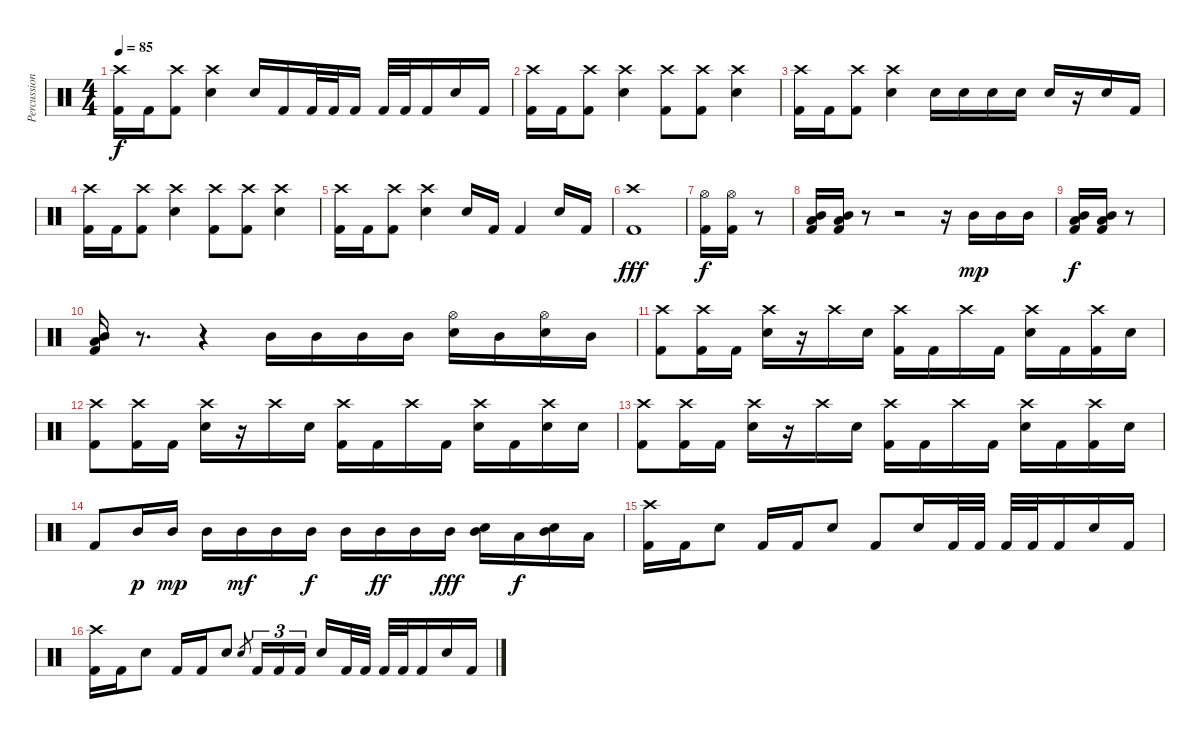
\track ("Percussion" "Percussion") {instrument percussion}
\staff {score}
\articulation defaults
\ts (4 4)
\tempo 85
\clef neutral
\ks c
("Crash high (hit)" "Kick (hit) 2").16{dy f} "Kick (hit) 2".16 ("Crash high (hit)" "Kick (hit) 2").8 ("Crash high (hit)" "Electric Snare (hit)").4 "Electric Snare (hit)".16 "Kick (hit) 2".16 "Kick (hit) 2".32 "Kick (hit) 2".32 "Kick (hit) 2".16 "Kick (hit) 2".32 "Kick (hit) 2".32 "Kick (hit) 2".16 "Electric Snare (hit)".16 "Kick (hit) 2".16 |
("Crash high (hit)" "Kick (hit) 2").16 "Kick (hit) 2".16 ("Crash high (hit)" "Kick (hit) 2").8 ("Crash high (hit)" "Electric Snare (hit)").4 ("Crash high (hit)" "Kick (hit) 2").8 ("Crash high (hit)" "Kick (hit) 2").8 ("Crash high (hit)" "Electric Snare (hit)").4 |
("Crash high (hit)" "Kick (hit) 2").16 "Kick (hit) 2".16 ("Crash high (hit)" "Kick (hit) 2").8 ("Crash high (hit)" "Electric Snare (hit)").4 "Electric Snare (hit)".16 "Electric Snare (hit)".16 "Electric Snare (hit)".16 "Electric Snare (hit)".16 "Electric Snare (hit)".16 r.16 "Electric Snare (hit)".16 "Kick (hit) 2".16 |
("Crash high (hit)" "Kick (hit) 2").16 "Kick (hit) 2".16 ("Crash high (hit)" "Kick (hit) 2").8 ("Crash high (hit)" "Electric Snare (hit)").4 ("Crash high (hit)" "Kick (hit) 2").8 ("Crash high (hit)" "Kick (hit) 2").8 ("Crash high (hit)" "Electric Snare (hit)").4 |
("Crash high (hit)" "Kick (hit) 2").16 "Kick (hit) 2".16 ("Crash high (hit)" "Kick (hit) 2").8 ("Crash high (hit)" "Electric Snare (hit)").4 "Electric Snare (hit)".16 "Kick (hit) 2".16 "Kick (hit) 2".4 "Electric Snare (hit)".16 "Kick (hit) 2".16 |
("Crash high (hit)" "Kick (hit) 2").1{dy fff} |
("Hi-Hat (open)" "Kick (hit) 2").16{dy f} ("Hi-Hat (open)" "Kick (hit) 2").16 r.8 |
("Mid Tom (hit)" "Low Tom (hit)" "Kick (hit) 2").16 ("Mid Tom (hit)" "Low Tom (hit)" "Kick (hit) 2").16 r.8 r.2 r.16 "Mid Tom (hit)".16{dy mp} "Mid Tom (hit)".16 "Mid Tom (hit)".16 |
("Mid Tom (hit)" "Low Tom (hit)" "Kick (hit) 2").16{dy f} ("Mid Tom (hit)" "Low Tom (hit)" "Kick (hit) 2").16 r.8 |
("Mid Tom (hit)" "Low Tom (hit)" "Kick (hit) 2").16 r.8{d} r.4 "Mid Tom (hit)".16 "Mid Tom (hit)".16 "Mid Tom (hit)".16 "Mid Tom (hit)".16 ("Hi-Hat (open)" "Electric Snare (hit)").16 "Mid Tom (hit)".16 ("Hi-Hat (open)" "Electric Snare (hit)").16 "Mid Tom (hit)".16 |
("Crash high (hit)" "Kick (hit) 2").8 ("Crash high (hit)" "Kick (hit) 2").16 "Kick (hit) 2".16 ("Crash high (hit)" "Electric Snare (hit)").16 r.16 "Crash high (hit)".16 "Electric Snare (hit)".16 ("Crash high (hit)" "Kick (hit) 2").16 "Kick (hit) 2".16 "Crash high (hit)".16 "Kick (hit) 2".16 ("Crash high (hit)" "Electric Snare (hit)").16 "Kick (hit) 2".16 ("Crash high (hit)" "Kick (hit) 2").16 "Electric Snare (hit)".16 |
("Crash high (hit)" "Kick (hit) 2").8 ("Crash high (hit)" "Kick (hit) 2").16 "Kick (hit) 2".16 ("Crash high (hit)" "Electric Snare (hit)").16 r.16 "Crash high (hit)".16 "Electric Snare (hit)".16 ("Crash high (hit)" "Kick (hit) 2").16 "Kick (hit) 2".16 "Crash high (hit)".16 "Kick (hit) 2".16 ("Crash high (hit)" "Electric Snare (hit)").16 "Kick (hit) 2".16 ("Crash high (hit)" "Electric Snare (hit)").16 "Electric Snare (hit)".16 |
("Crash high (hit)" "Kick (hit) 2").8 ("Crash high (hit)" "Kick (hit) 2").16 "Kick (hit) 2".16 ("Crash high (hit)" "Electric Snare (hit)").16 r.16 "Crash high (hit)".16 "Electric Snare (hit)".16 ("Crash high (hit)" "Kick (hit) 2").16 "Kick (hit) 2".16 "Crash high (hit)".16 "Kick (hit) 2".16 ("Crash high (hit)" "Electric Snare (hit)").16 "Kick (hit) 2".16 ("Crash high (hit)" "Kick (hit) 2").16 "Electric Snare (hit)".16 |
"Kick (hit) 2".8 "Mid Tom (hit)".16{dy p} "Mid Tom (hit)".16{dy mp} "Mid Tom (hit)".16 "Mid Tom (hit)".16{dy mf} "Mid Tom (hit)".16 "Mid Tom (hit)".16{dy f} "Mid Tom (hit)".16 "Mid Tom (hit)".16{dy ff} "Mid Tom (hit)".16 "Mid Tom (hit)".16{dy fff} ("Mid Tom (hit)" "Electric Snare (hit)").16 "Low Tom (hit)".16{dy f} ("Mid Tom (hit)" "Electric Snare (hit)").16 "Low Tom (hit)".16 |
("Crash high (hit)" "Kick (hit) 2").16 "Kick (hit) 2".16 "Electric Snare (hit)".8 "Kick (hit) 2".16 "Kick (hit) 2".16 "Electric Snare (hit)".8 "Kick (hit) 2".8 "Electric Snare (hit)".16 "Kick (hit) 2".32 "Kick (hit) 2".32 "Kick (hit) 2".32 "Kick (hit) 2".32 "Kick (hit) 2".16 "Electric Snare (hit)".16 "Kick (hit) 2".16 |
("Crash high (hit)" "Kick (hit) 2").16 "Kick (hit) 2".16 "Electric Snare (hit)".8 "Kick (hit) 2".16 "Kick (hit) 2".16 "Electric Snare (hit)".8 "Electric Snare (hit)".8{gr} "Kick (hit) 2".16{tu (3 2)} "Kick (hit) 2".16{tu (3 2)} "Kick (hit) 2".16{tu (3 2)} "Electric Snare (hit)".16 "Kick (hit) 2".32 "Kick (hit) 2".32 "Kick (hit) 2".32 "Kick (hit) 2".32 "Kick (hit) 2".16 "Electric Snare (hit)".16 "Kick (hit) 2".16
